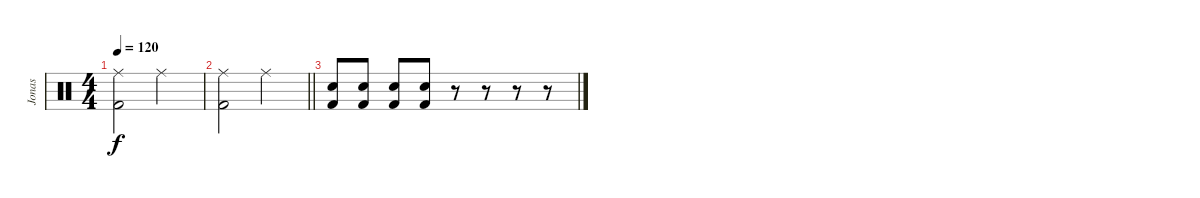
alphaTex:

\track ("Jonas" "Jonas") {instrument percussion}
\staff {score}
\articulation defaults
\ts (4 4)
\tempo 120
\clef neutral
\ks c
("Ride (middle)" "Kick (hit) 2").2{dy f} "Ride (middle)".2 |
\barLineRight lightlight
("Ride (middle)" "Kick (hit) 2").2 "Ride (middle)".2 |
("Snare (hit) 2" "Kick (hit) 2").8 ("Snare (hit) 2" "Kick (hit) 2").8 ("Snare (hit) 2" "Kick (hit) 2").8 ("Snare (hit) 2" "Kick (hit) 2").8 r.8 r.8 r.8 r.8
